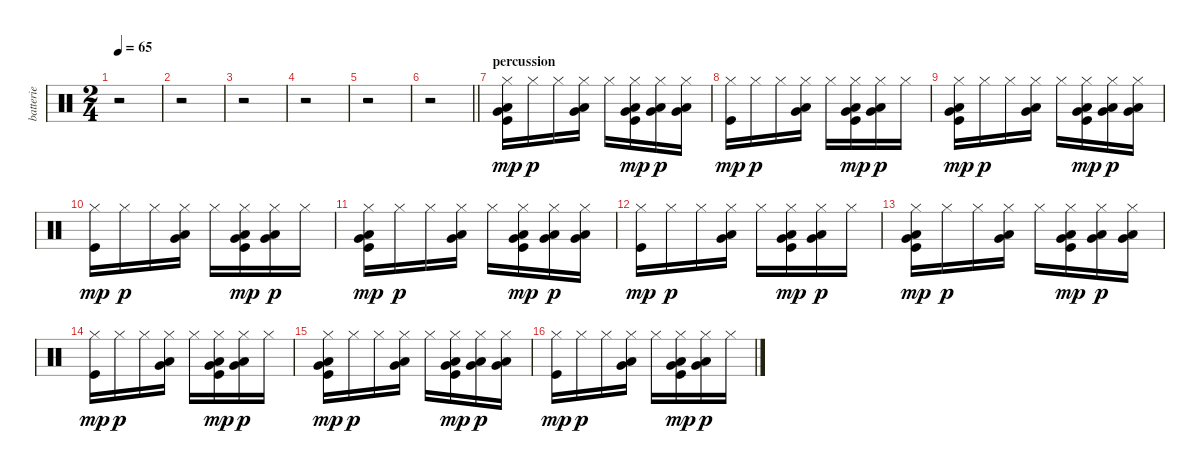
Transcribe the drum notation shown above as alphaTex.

\track ("batterie" "batterie") {instrument percussion}
\staff {score}
\articulation defaults
\ts (2 4)
\tempo 65
\clef neutral
\ks c
r.2{dy mp} |
r.2 |
r.2 |
r.2 |
r.2 |
\barLineRight lightlight
r.2 |
\section ("" "percussion")
("Hi-Hat (closed)" "Low Tom (hit)" "Very Low Tom (hit)" "Kick (hit)").16 "Hi-Hat (closed)".16{dy p} "Hi-Hat (closed)".16 ("Hi-Hat (closed)" "Low Tom (hit)" "Very Low Tom (hit)").16 "Hi-Hat (closed)".16 ("Hi-Hat (closed)" "Low Tom (hit)" "Very Low Tom (hit)" "Kick (hit)").16{dy mp} ("Hi-Hat (closed)" "Low Tom (hit)" "Very Low Tom (hit)").16{dy p} ("Hi-Hat (closed)" "Low Tom (hit)" "Very Low Tom (hit)").16 |
("Hi-Hat (closed)" "Kick (hit)").16{dy mp} "Hi-Hat (closed)".16{dy p} "Hi-Hat (closed)".16 ("Hi-Hat (closed)" "Low Tom (hit)" "Very Low Tom (hit)").16 "Hi-Hat (closed)".16 ("Hi-Hat (closed)" "Low Tom (hit)" "Very Low Tom (hit)" "Kick (hit)").16{dy mp} ("Hi-Hat (closed)" "Low Tom (hit)" "Very Low Tom (hit)").16{dy p} "Hi-Hat (closed)".16 |
("Hi-Hat (closed)" "Low Tom (hit)" "Very Low Tom (hit)" "Kick (hit)").16{dy mp} "Hi-Hat (closed)".16{dy p} "Hi-Hat (closed)".16 ("Hi-Hat (closed)" "Low Tom (hit)" "Very Low Tom (hit)").16 "Hi-Hat (closed)".16 ("Hi-Hat (closed)" "Low Tom (hit)" "Very Low Tom (hit)" "Kick (hit)").16{dy mp} ("Hi-Hat (closed)" "Low Tom (hit)" "Very Low Tom (hit)").16{dy p} ("Hi-Hat (closed)" "Low Tom (hit)" "Very Low Tom (hit)").16 |
("Hi-Hat (closed)" "Kick (hit)").16{dy mp} "Hi-Hat (closed)".16{dy p} "Hi-Hat (closed)".16 ("Hi-Hat (closed)" "Low Tom (hit)" "Very Low Tom (hit)").16 "Hi-Hat (closed)".16 ("Hi-Hat (closed)" "Low Tom (hit)" "Very Low Tom (hit)" "Kick (hit)").16{dy mp} ("Hi-Hat (closed)" "Low Tom (hit)" "Very Low Tom (hit)").16{dy p} "Hi-Hat (closed)".16 |
("Hi-Hat (closed)" "Low Tom (hit)" "Very Low Tom (hit)" "Kick (hit)").16{dy mp} "Hi-Hat (closed)".16{dy p} "Hi-Hat (closed)".16 ("Hi-Hat (closed)" "Low Tom (hit)" "Very Low Tom (hit)").16 "Hi-Hat (closed)".16 ("Hi-Hat (closed)" "Low Tom (hit)" "Very Low Tom (hit)" "Kick (hit)").16{dy mp} ("Hi-Hat (closed)" "Low Tom (hit)" "Very Low Tom (hit)").16{dy p} ("Hi-Hat (closed)" "Low Tom (hit)" "Very Low Tom (hit)").16 |
("Hi-Hat (closed)" "Kick (hit)").16{dy mp} "Hi-Hat (closed)".16{dy p} "Hi-Hat (closed)".16 ("Hi-Hat (closed)" "Low Tom (hit)" "Very Low Tom (hit)").16 "Hi-Hat (closed)".16 ("Hi-Hat (closed)" "Low Tom (hit)" "Very Low Tom (hit)" "Kick (hit)").16{dy mp} ("Hi-Hat (closed)" "Low Tom (hit)" "Very Low Tom (hit)").16{dy p} "Hi-Hat (closed)".16 |
("Hi-Hat (closed)" "Low Tom (hit)" "Very Low Tom (hit)" "Kick (hit)").16{dy mp} "Hi-Hat (closed)".16{dy p} "Hi-Hat (closed)".16 ("Hi-Hat (closed)" "Low Tom (hit)" "Very Low Tom (hit)").16 "Hi-Hat (closed)".16 ("Hi-Hat (closed)" "Low Tom (hit)" "Very Low Tom (hit)" "Kick (hit)").16{dy mp} ("Hi-Hat (closed)" "Low Tom (hit)" "Very Low Tom (hit)").16{dy p} ("Hi-Hat (closed)" "Low Tom (hit)" "Very Low Tom (hit)").16 |
("Hi-Hat (closed)" "Kick (hit)").16{dy mp} "Hi-Hat (closed)".16{dy p} "Hi-Hat (closed)".16 ("Hi-Hat (closed)" "Low Tom (hit)" "Very Low Tom (hit)").16 "Hi-Hat (closed)".16 ("Hi-Hat (closed)" "Low Tom (hit)" "Very Low Tom (hit)" "Kick (hit)").16{dy mp} ("Hi-Hat (closed)" "Low Tom (hit)" "Very Low Tom (hit)").16{dy p} "Hi-Hat (closed)".16 |
("Hi-Hat (closed)" "Low Tom (hit)" "Very Low Tom (hit)" "Kick (hit)").16{dy mp} "Hi-Hat (closed)".16{dy p} "Hi-Hat (closed)".16 ("Hi-Hat (closed)" "Low Tom (hit)" "Very Low Tom (hit)").16 "Hi-Hat (closed)".16 ("Hi-Hat (closed)" "Low Tom (hit)" "Very Low Tom (hit)" "Kick (hit)").16{dy mp} ("Hi-Hat (closed)" "Low Tom (hit)" "Very Low Tom (hit)").16{dy p} ("Hi-Hat (closed)" "Low Tom (hit)" "Very Low Tom (hit)").16 |
("Hi-Hat (closed)" "Kick (hit)").16{dy mp} "Hi-Hat (closed)".16{dy p} "Hi-Hat (closed)".16 ("Hi-Hat (closed)" "Low Tom (hit)" "Very Low Tom (hit)").16 "Hi-Hat (closed)".16 ("Hi-Hat (closed)" "Low Tom (hit)" "Very Low Tom (hit)" "Kick (hit)").16{dy mp} ("Hi-Hat (closed)" "Low Tom (hit)" "Very Low Tom (hit)").16{dy p} "Hi-Hat (closed)".16
